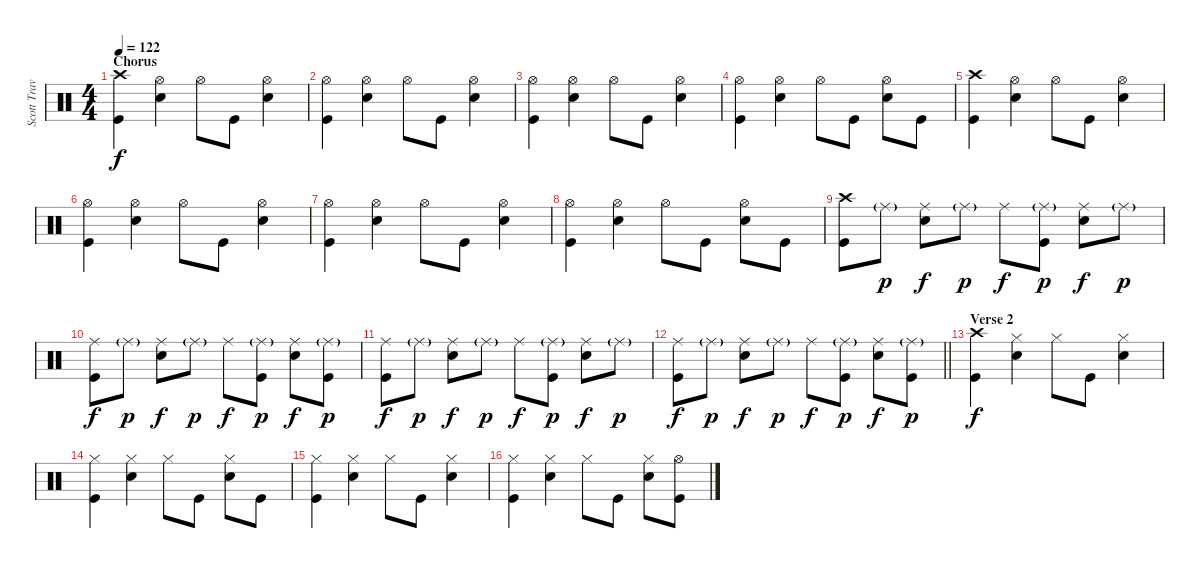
\track ("Scott Travis" "Scott Trav") {instrument percussion}
\staff {score}
\articulation defaults
\ts (4 4)
\section ("" "Chorus")
\tempo 122
\clef neutral
\ks c
("Crash high (hit)" "Kick (hit)").4{dy f} ("Hi-Hat (open)" "Snare (hit) 2").4 "Hi-Hat (open)".8 "Kick (hit)".8 ("Hi-Hat (open)" "Snare (hit) 2").4 |
("Hi-Hat (open)" "Kick (hit)").4 ("Hi-Hat (open)" "Snare (hit) 2").4 "Hi-Hat (open)".8 "Kick (hit)".8 ("Hi-Hat (open)" "Snare (hit) 2").4 |
("Hi-Hat (open)" "Kick (hit)").4 ("Hi-Hat (open)" "Snare (hit) 2").4 "Hi-Hat (open)".8 "Kick (hit)".8 ("Hi-Hat (open)" "Snare (hit) 2").4 |
("Hi-Hat (open)" "Kick (hit)").4 ("Hi-Hat (open)" "Snare (hit) 2").4 "Hi-Hat (open)".8 "Kick (hit)".8 ("Hi-Hat (open)" "Snare (hit) 2").8 "Kick (hit)".8 |
("Crash high (hit)" "Kick (hit)").4 ("Hi-Hat (open)" "Snare (hit) 2").4 "Hi-Hat (open)".8 "Kick (hit)".8 ("Hi-Hat (open)" "Snare (hit) 2").4 |
("Hi-Hat (open)" "Kick (hit)").4 ("Hi-Hat (open)" "Snare (hit) 2").4 "Hi-Hat (open)".8 "Kick (hit)".8 ("Hi-Hat (open)" "Snare (hit) 2").4 |
("Hi-Hat (open)" "Kick (hit)").4 ("Hi-Hat (open)" "Snare (hit) 2").4 "Hi-Hat (open)".8 "Kick (hit)".8 ("Hi-Hat (open)" "Snare (hit) 2").4 |
("Hi-Hat (open)" "Kick (hit)").4 ("Hi-Hat (open)" "Snare (hit) 2").4 "Hi-Hat (open)".8 "Kick (hit)".8 ("Hi-Hat (open)" "Snare (hit) 2").8 "Kick (hit)".8 |
("Crash high (hit)" "Kick (hit)").8 "Ride (middle)"{g}.8{dy p} ("Ride (middle)" "Snare (hit) 2").8{dy f} "Ride (middle)"{g}.8{dy p} "Ride (middle)".8{dy f} ("Ride (middle)"{g} "Kick (hit)").8{dy p} ("Ride (middle)" "Snare (hit) 2").8{dy f} "Ride (middle)"{g}.8{dy p} |
("Ride (middle)" "Kick (hit)").8{dy f} "Ride (middle)"{g}.8{dy p} ("Ride (middle)" "Snare (hit) 2").8{dy f} "Ride (middle)"{g}.8{dy p} "Ride (middle)".8{dy f} ("Ride (middle)"{g} "Kick (hit)").8{dy p} ("Ride (middle)" "Snare (hit) 2").8{dy f} ("Ride (middle)"{g} "Kick (hit)").8{dy p} |
("Ride (middle)" "Kick (hit)").8{dy f} "Ride (middle)"{g}.8{dy p} ("Ride (middle)" "Snare (hit) 2").8{dy f} "Ride (middle)"{g}.8{dy p} "Ride (middle)".8{dy f} ("Ride (middle)"{g} "Kick (hit)").8{dy p} ("Ride (middle)" "Snare (hit) 2").8{dy f} "Ride (middle)"{g}.8{dy p} |
\barLineRight lightlight
("Ride (middle)" "Kick (hit)").8{dy f} "Ride (middle)"{g}.8{dy p} ("Ride (middle)" "Snare (hit) 2").8{dy f} "Ride (middle)"{g}.8{dy p} "Ride (middle)".8{dy f} ("Ride (middle)"{g} "Kick (hit)").8{dy p} ("Ride (middle)" "Snare (hit) 2").8{dy f} ("Ride (middle)"{g} "Kick (hit)").8{dy p} |
\section ("" "Verse 2")
("Crash high (hit)" "Kick (hit)").4{dy f} ("Hi-Hat (closed)" "Snare (hit) 2").4 "Hi-Hat (closed)".8 "Kick (hit)".8 ("Hi-Hat (closed)" "Snare (hit) 2").4 |
("Hi-Hat (closed)" "Kick (hit)").4 ("Hi-Hat (closed)" "Snare (hit) 2").4 "Hi-Hat (closed)".8 "Kick (hit)".8 ("Hi-Hat (closed)" "Snare (hit) 2").8 "Kick (hit)".8 |
("Hi-Hat (closed)" "Kick (hit)").4 ("Hi-Hat (closed)" "Snare (hit) 2").4 "Hi-Hat (closed)".8 "Kick (hit)".8 ("Hi-Hat (closed)" "Snare (hit) 2").4 |
("Hi-Hat (closed)" "Kick (hit)").4 ("Hi-Hat (closed)" "Snare (hit) 2").4 "Hi-Hat (closed)".8 "Kick (hit)".8 ("Hi-Hat (closed)" "Snare (hit) 2").8 ("Hi-Hat (open)" "Kick (hit)").8
